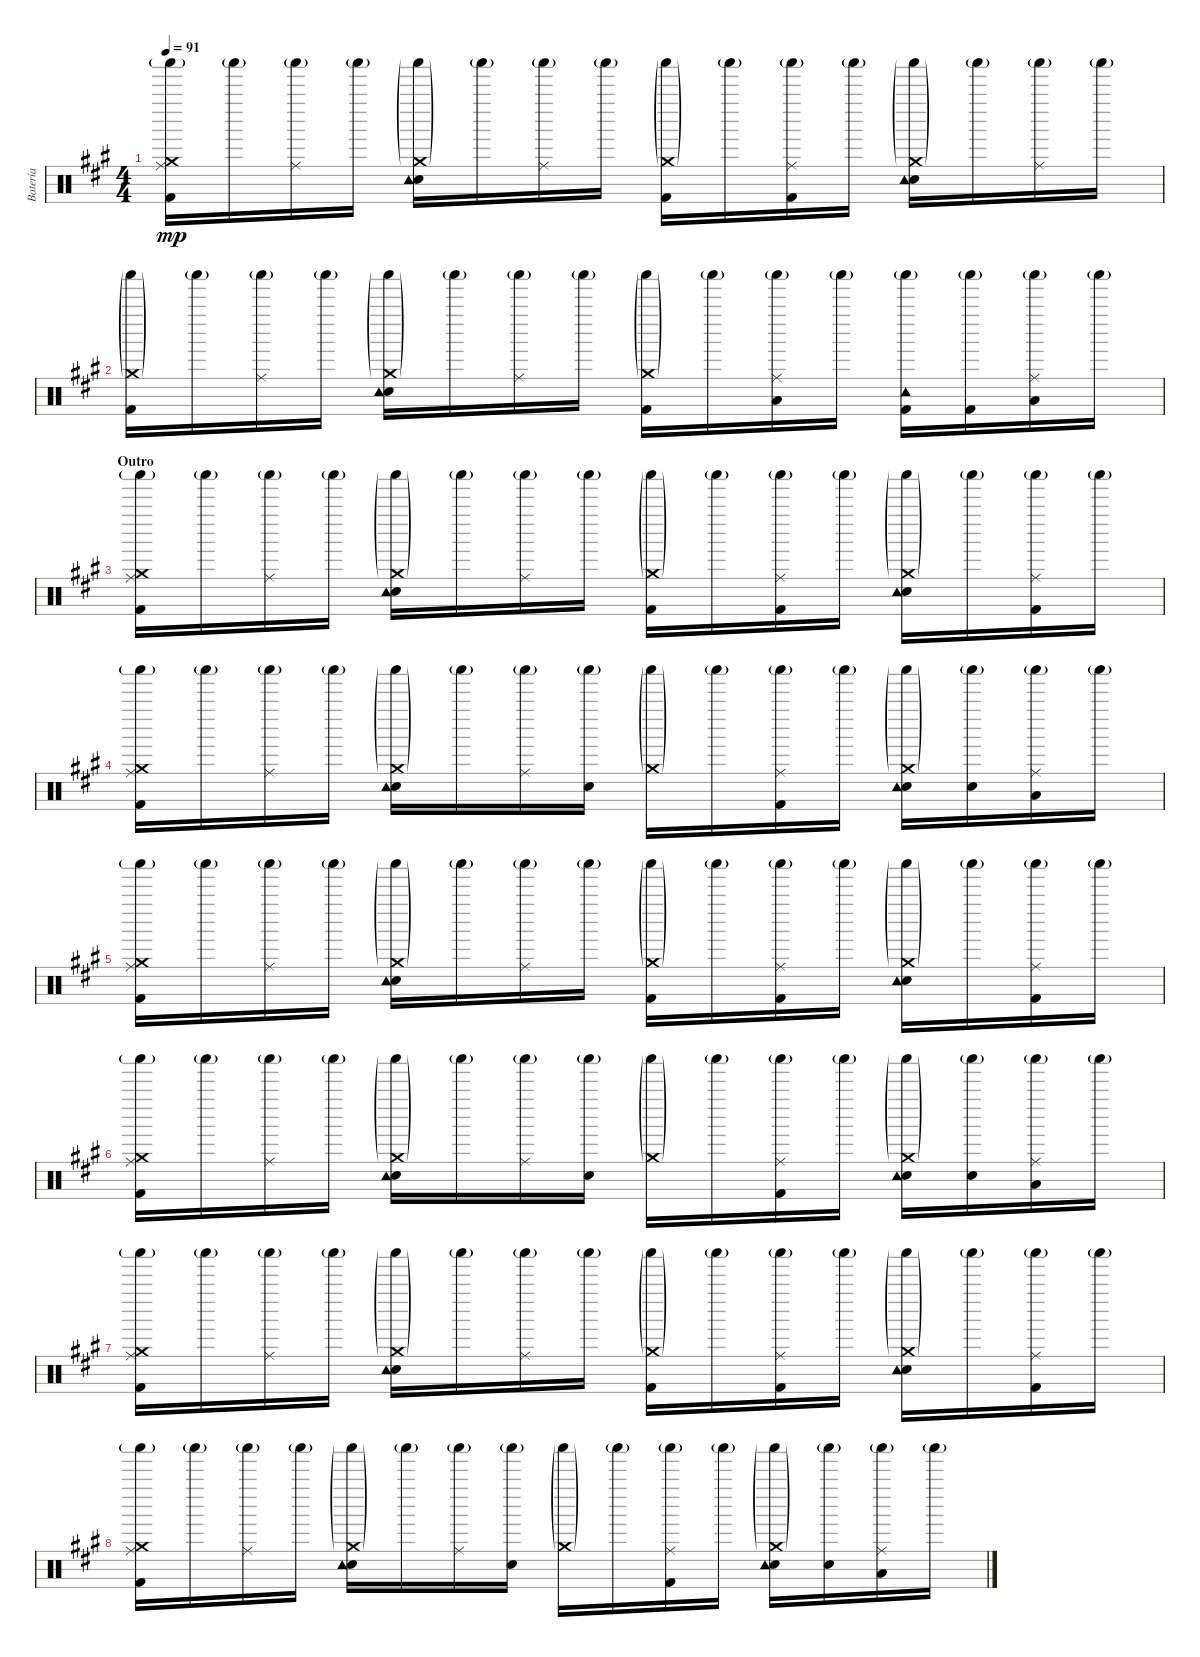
\track ("Batería" "Batería") {instrument percussion}
\staff {score}
\articulation defaults
\ts (4 4)
\tempo 91
\clef neutral
\ks a
("Kick (hit) 2" "Ride (middle)" "Crash medium (hit)" "Shaker (hit)"{g}).16{dy mp} "Shaker (hit)"{g}.16 ("Ride (middle)" "Shaker (hit)"{g}).16 "Shaker (hit)"{g}.16 ("Electric Snare (hit)" "Crash medium (hit)"{g} "Tambourine (hit)" "Shaker (hit)"{g}).16 "Shaker (hit)"{g}.16 ("Ride (middle)" "Shaker (hit)"{g}).16 "Shaker (hit)"{g}.16 ("Kick (hit) 2" "Crash medium (hit)"{g} "Shaker (hit)"{g}).16 "Shaker (hit)"{g}.16 ("Kick (hit) 2" "Ride (middle)" "Shaker (hit)"{g}).16 "Shaker (hit)"{g}.16 ("Electric Snare (hit)" "Crash medium (hit)"{g} "Tambourine (hit)" "Shaker (hit)"{g}).16 "Shaker (hit)"{g}.16 ("Ride (middle)" "Shaker (hit)"{g}).16 "Shaker (hit)"{g}.16 |
("Kick (hit) 2" "Crash medium (hit)"{g} "Shaker (hit)"{g}).16 "Shaker (hit)"{g}.16 ("Ride (middle)" "Shaker (hit)"{g}).16 "Shaker (hit)"{g}.16 ("Electric Snare (hit)" "Crash medium (hit)"{g} "Tambourine (hit)" "Shaker (hit)"{g}).16 "Shaker (hit)"{g}.16 ("Ride (middle)" "Shaker (hit)"{g}).16 "Shaker (hit)"{g}.16 ("Kick (hit) 2" "Crash medium (hit)"{g} "Shaker (hit)"{g}).16 "Shaker (hit)"{g}.16 ("Ride (middle)" "Low Tom (hit)" "Shaker (hit)"{g}).16 "Shaker (hit)"{g}.16 ("Kick (hit) 2" "Tambourine (hit)" "Shaker (hit)"{g}).16 ("Kick (hit) 2" "Shaker (hit)"{g}).16 ("Ride (middle)" "Low Tom (hit)" "Shaker (hit)"{g}).16 "Shaker (hit)"{g}.16 |
\section ("" "Outro")
("Kick (hit) 2" "Ride (middle)" "Crash medium (hit)" "Shaker (hit)"{g}).16 "Shaker (hit)"{g}.16 ("Ride (middle)" "Shaker (hit)"{g}).16 "Shaker (hit)"{g}.16 ("Electric Snare (hit)" "Crash medium (hit)"{g} "Tambourine (hit)" "Shaker (hit)"{g}).16 "Shaker (hit)"{g}.16 ("Ride (middle)" "Shaker (hit)"{g}).16 "Shaker (hit)"{g}.16 ("Kick (hit) 2" "Crash medium (hit)"{g} "Shaker (hit)"{g}).16 "Shaker (hit)"{g}.16 ("Kick (hit) 2" "Ride (middle)" "Shaker (hit)"{g}).16 "Shaker (hit)"{g}.16 ("Electric Snare (hit)" "Crash medium (hit)"{g} "Tambourine (hit)" "Shaker (hit)"{g}).16 "Shaker (hit)"{g}.16 ("Kick (hit) 2" "Ride (middle)" "Shaker (hit)"{g}).16 "Shaker (hit)"{g}.16 |
("Kick (hit) 2" "Ride (middle)" "Crash medium (hit)" "Shaker (hit)"{g}).16 "Shaker (hit)"{g}.16 ("Ride (middle)" "Shaker (hit)"{g}).16 "Shaker (hit)"{g}.16 ("Electric Snare (hit)" "Crash medium (hit)"{g} "Tambourine (hit)" "Shaker (hit)"{g}).16 "Shaker (hit)"{g}.16 ("Ride (middle)" "Shaker (hit)"{g}).16 ("Electric Snare (hit)" "Shaker (hit)"{g}).16 ("Crash medium (hit)"{g} "Shaker (hit)"{g}).16 "Shaker (hit)"{g}.16 ("Kick (hit) 2" "Ride (middle)" "Shaker (hit)"{g}).16 "Shaker (hit)"{g}.16 ("Electric Snare (hit)" "Crash medium (hit)"{g} "Tambourine (hit)" "Shaker (hit)"{g}).16 ("Electric Snare (hit)" "Shaker (hit)"{g}).16 ("Ride (middle)" "Low Tom (hit)" "Shaker (hit)"{g}).16 "Shaker (hit)"{g}.16 |
("Kick (hit) 2" "Ride (middle)" "Crash medium (hit)" "Shaker (hit)"{g}).16 "Shaker (hit)"{g}.16 ("Ride (middle)" "Shaker (hit)"{g}).16 "Shaker (hit)"{g}.16 ("Electric Snare (hit)" "Crash medium (hit)"{g} "Tambourine (hit)" "Shaker (hit)"{g}).16 "Shaker (hit)"{g}.16 ("Ride (middle)" "Shaker (hit)"{g}).16 "Shaker (hit)"{g}.16 ("Kick (hit) 2" "Crash medium (hit)"{g} "Shaker (hit)"{g}).16 "Shaker (hit)"{g}.16 ("Kick (hit) 2" "Ride (middle)" "Shaker (hit)"{g}).16 "Shaker (hit)"{g}.16 ("Electric Snare (hit)" "Crash medium (hit)"{g} "Tambourine (hit)" "Shaker (hit)"{g}).16 "Shaker (hit)"{g}.16 ("Kick (hit) 2" "Ride (middle)" "Shaker (hit)"{g}).16 "Shaker (hit)"{g}.16 |
("Kick (hit) 2" "Ride (middle)" "Crash medium (hit)" "Shaker (hit)"{g}).16 "Shaker (hit)"{g}.16 ("Ride (middle)" "Shaker (hit)"{g}).16 "Shaker (hit)"{g}.16 ("Electric Snare (hit)" "Crash medium (hit)"{g} "Tambourine (hit)" "Shaker (hit)"{g}).16 "Shaker (hit)"{g}.16 ("Ride (middle)" "Shaker (hit)"{g}).16 ("Electric Snare (hit)" "Shaker (hit)"{g}).16 ("Crash medium (hit)"{g} "Shaker (hit)"{g}).16 "Shaker (hit)"{g}.16 ("Kick (hit) 2" "Ride (middle)" "Shaker (hit)"{g}).16 "Shaker (hit)"{g}.16 ("Electric Snare (hit)" "Crash medium (hit)"{g} "Tambourine (hit)" "Shaker (hit)"{g}).16 ("Electric Snare (hit)" "Shaker (hit)"{g}).16 ("Ride (middle)" "Low Tom (hit)" "Shaker (hit)"{g}).16 "Shaker (hit)"{g}.16 |
("Kick (hit) 2" "Ride (middle)" "Crash medium (hit)" "Shaker (hit)"{g}).16 "Shaker (hit)"{g}.16 ("Ride (middle)" "Shaker (hit)"{g}).16 "Shaker (hit)"{g}.16 ("Electric Snare (hit)" "Crash medium (hit)"{g} "Tambourine (hit)" "Shaker (hit)"{g}).16 "Shaker (hit)"{g}.16 ("Ride (middle)" "Shaker (hit)"{g}).16 "Shaker (hit)"{g}.16 ("Kick (hit) 2" "Crash medium (hit)"{g} "Shaker (hit)"{g}).16 "Shaker (hit)"{g}.16 ("Kick (hit) 2" "Ride (middle)" "Shaker (hit)"{g}).16 "Shaker (hit)"{g}.16 ("Electric Snare (hit)" "Crash medium (hit)"{g} "Tambourine (hit)" "Shaker (hit)"{g}).16 "Shaker (hit)"{g}.16 ("Kick (hit) 2" "Ride (middle)" "Shaker (hit)"{g}).16 "Shaker (hit)"{g}.16 |
("Kick (hit) 2" "Ride (middle)" "Crash medium (hit)" "Shaker (hit)"{g}).16 "Shaker (hit)"{g}.16 ("Ride (middle)" "Shaker (hit)"{g}).16 "Shaker (hit)"{g}.16 ("Electric Snare (hit)" "Crash medium (hit)"{g} "Tambourine (hit)" "Shaker (hit)"{g}).16 "Shaker (hit)"{g}.16 ("Ride (middle)" "Shaker (hit)"{g}).16 ("Electric Snare (hit)" "Shaker (hit)"{g}).16 ("Crash medium (hit)"{g} "Shaker (hit)"{g}).16 "Shaker (hit)"{g}.16 ("Kick (hit) 2" "Ride (middle)" "Shaker (hit)"{g}).16 "Shaker (hit)"{g}.16 ("Electric Snare (hit)" "Crash medium (hit)"{g} "Tambourine (hit)" "Shaker (hit)"{g}).16 ("Electric Snare (hit)" "Shaker (hit)"{g}).16 ("Ride (middle)" "Low Tom (hit)" "Shaker (hit)"{g}).16 "Shaker (hit)"{g}.16
